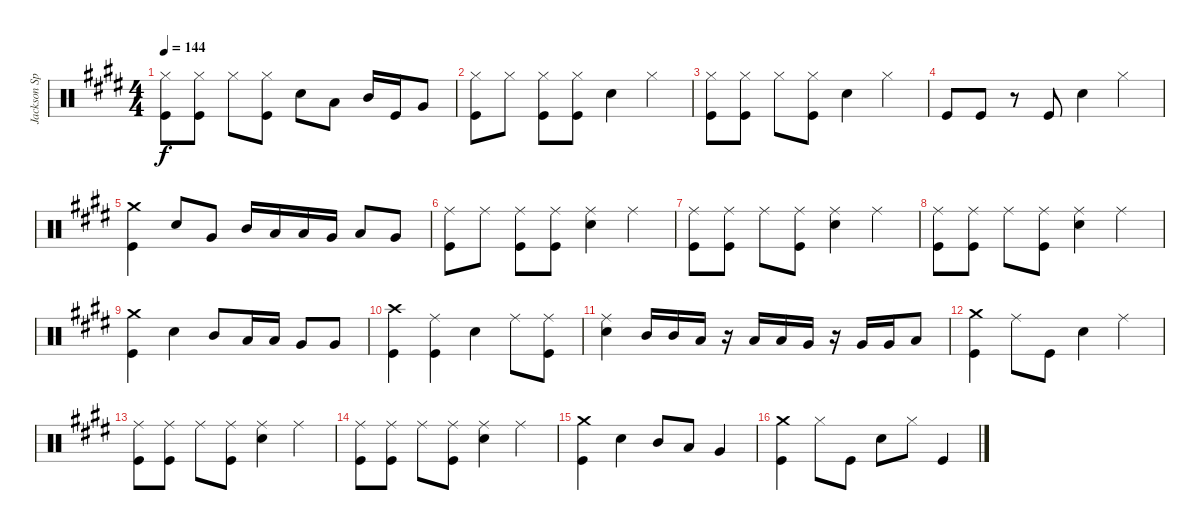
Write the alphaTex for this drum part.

\track ("Jackson Spiers Drums" "Jackson Sp") {instrument percussion}
\staff {score}
\articulation defaults
\ts (4 4)
\tempo 144
\clef neutral
\ks c#minor
("Hi-Hat (closed)" "Kick (hit)").8{dy f} ("Hi-Hat (closed)" "Kick (hit)").8 "Hi-Hat (closed)".8 ("Hi-Hat (closed)" "Kick (hit)").8 "Snare (hit) 2".8 "Low Tom (hit)".8 "Mid Tom (hit)".16 "Kick (hit)".16 "Very Low Tom (hit)".8 |
("Hi-Hat (closed)" "Kick (hit)").8 "Hi-Hat (closed)".8 ("Hi-Hat (closed)" "Kick (hit)").8 ("Hi-Hat (closed)" "Kick (hit)").8 "Snare (hit) 2".4 "Hi-Hat (closed)".4 |
("Hi-Hat (closed)" "Kick (hit)").8 ("Hi-Hat (closed)" "Kick (hit)").8 "Hi-Hat (closed)".8 ("Hi-Hat (closed)" "Kick (hit)").8 "Snare (hit) 2".4 "Hi-Hat (closed)".4 |
"Kick (hit)".8 "Kick (hit)".8 r.8 "Kick (hit)".8 "Snare (hit) 2".4 "Hi-Hat (closed)".4 |
("Crash medium (hit)" "Kick (hit)").4 "Snare (hit) 2".8 "Very Low Tom (hit)".8 "Mid Tom (hit)".16 "Low Tom (hit)".16 "Low Tom (hit)".16 "Very Low Tom (hit)".16 "Low Tom (hit)".8 "Very Low Tom (hit)".8 |
("Ride (middle)" "Kick (hit)").8 "Ride (middle)".8 ("Ride (middle)" "Kick (hit)").8 ("Ride (middle)" "Kick (hit)").8 ("Ride (middle)" "Snare (hit) 2").4 "Ride (middle)".4 |
("Ride (middle)" "Kick (hit)").8 ("Ride (middle)" "Kick (hit)").8 "Ride (middle)".8 ("Ride (middle)" "Kick (hit)").8 ("Ride (middle)" "Snare (hit) 2").4 "Ride (middle)".4 |
("Ride (middle)" "Kick (hit)").8 ("Ride (middle)" "Kick (hit)").8 "Ride (middle)".8 ("Ride (middle)" "Kick (hit)").8 ("Ride (middle)" "Snare (hit) 2").4 "Ride (middle)".4 |
("Crash medium (hit)" "Kick (hit)").4 "Snare (hit) 2".4 "Mid Tom (hit)".8 "Low Tom (hit)".16 "Low Tom (hit)".16 "Very Low Tom (hit)".8 "Very Low Tom (hit)".8 |
("Crash high (hit)" "Kick (hit)").4 ("Ride (middle)" "Kick (hit)").4 "Snare (hit) 2".4 "Ride (middle)".8 ("Ride (middle)" "Kick (hit)").8 |
("Ride (middle)" "Snare (hit) 2").4 "Mid Tom (hit)".16 "Mid Tom (hit)".16 "Low Tom (hit)".16 r.16 "Low Tom (hit)".16 "Low Tom (hit)".16 "Very Low Tom (hit)".16 r.16 "Very Low Tom (hit)".16 "Very Low Tom (hit)".16 "Low Floor Tom (hit)".8 |
("Crash medium (hit)" "Kick (hit)").4 "Ride (middle)".8 "Kick (hit)".8 "Snare (hit) 2".4 "Ride (middle)".4 |
("Ride (middle)" "Kick (hit)").8 ("Ride (middle)" "Kick (hit)").8 "Ride (middle)".8 ("Ride (middle)" "Kick (hit)").8 ("Ride (middle)" "Snare (hit) 2").4 "Ride (middle)".4 |
("Ride (middle)" "Kick (hit)").8 ("Ride (middle)" "Kick (hit)").8 "Ride (middle)".8 ("Ride (middle)" "Kick (hit)").8 ("Ride (middle)" "Snare (hit) 2").4 "Ride (middle)".4 |
("Crash medium (hit)" "Kick (hit)").4 "Snare (hit) 2".4 "Mid Tom (hit)".8 "Low Tom (hit)".8 "Very Low Tom (hit)".4 |
("Crash medium (hit)" "Kick (hit)").4 "Hi-Hat (closed)".8 "Kick (hit)".8 "Snare (hit) 2".8 "Hi-Hat (closed)".8 "Kick (hit)".4
